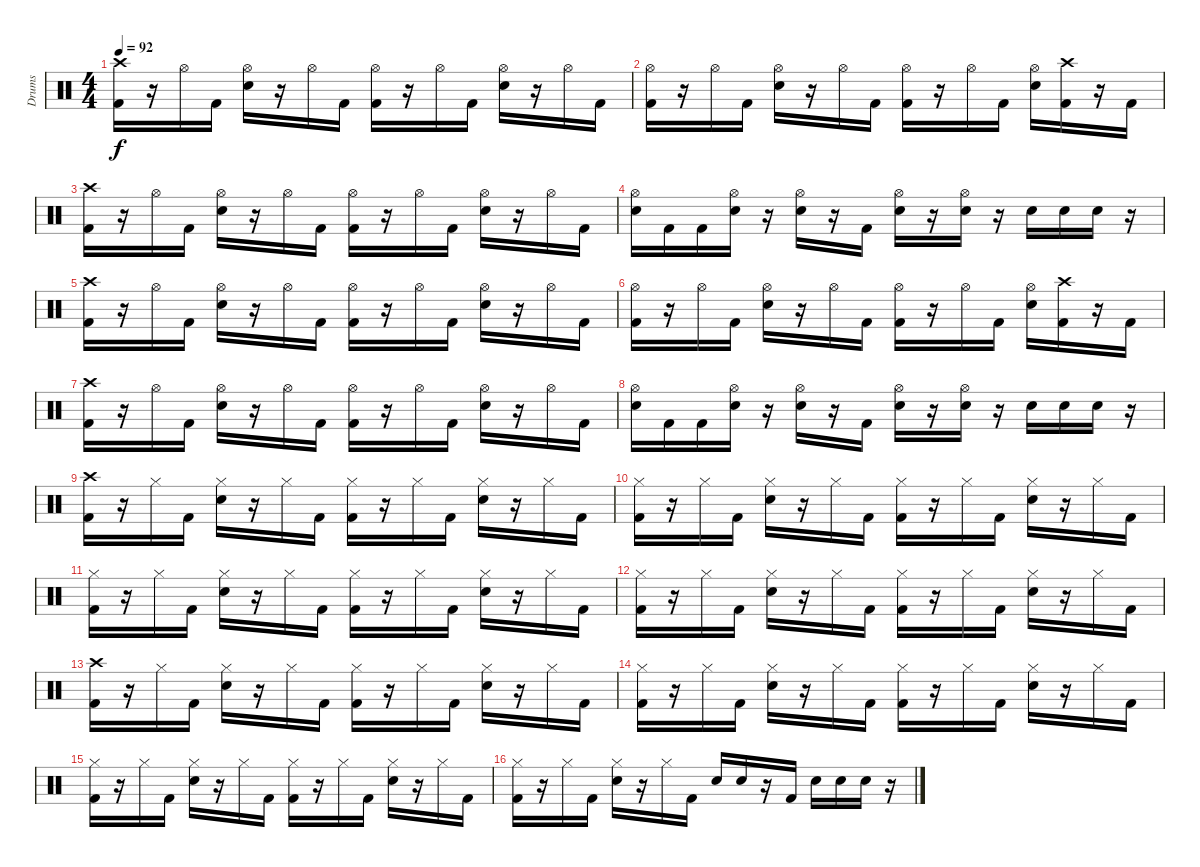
\track ("Drums" "Drums") {instrument percussion}
\staff {score}
\articulation defaults
\ts (4 4)
\tempo 92
\clef neutral
\ks c
("Crash high (hit)" "Kick (hit) 2").16{dy f} r.16 "Hi-Hat (open)".16 "Kick (hit) 2".16 ("Hi-Hat (open)" "Electric Snare (hit)").16 r.16 "Hi-Hat (open)".16 "Kick (hit) 2".16 ("Hi-Hat (open)" "Kick (hit) 2").16 r.16 "Hi-Hat (open)".16 "Kick (hit) 2".16 ("Hi-Hat (open)" "Electric Snare (hit)").16 r.16 "Hi-Hat (open)".16 "Kick (hit) 2".16 |
("Hi-Hat (open)" "Kick (hit) 2").16 r.16 "Hi-Hat (open)".16 "Kick (hit) 2".16 ("Hi-Hat (open)" "Electric Snare (hit)").16 r.16 "Hi-Hat (open)".16 "Kick (hit) 2".16 ("Hi-Hat (open)" "Kick (hit) 2").16 r.16 "Hi-Hat (open)".16 "Kick (hit) 2".16 ("Hi-Hat (open)" "Electric Snare (hit)").16 ("Crash high (hit)" "Kick (hit) 2").16 r.16 "Kick (hit) 2".16 |
("Crash high (hit)" "Kick (hit) 2").16 r.16 "Hi-Hat (open)".16 "Kick (hit) 2".16 ("Hi-Hat (open)" "Electric Snare (hit)").16 r.16 "Hi-Hat (open)".16 "Kick (hit) 2".16 ("Hi-Hat (open)" "Kick (hit) 2").16 r.16 "Hi-Hat (open)".16 "Kick (hit) 2".16 ("Hi-Hat (open)" "Electric Snare (hit)").16 r.16 "Hi-Hat (open)".16 "Kick (hit) 2".16 |
("Hi-Hat (open)" "Electric Snare (hit)").16 "Kick (hit) 2".16 "Kick (hit) 2".16 ("Hi-Hat (open)" "Electric Snare (hit)").16 r.16 ("Hi-Hat (open)" "Electric Snare (hit)").16 r.16 "Kick (hit) 2".16 ("Hi-Hat (open)" "Electric Snare (hit)").16 r.16 ("Hi-Hat (open)" "Electric Snare (hit)").16 r.16 "Electric Snare (hit)".16 "Electric Snare (hit)".16 "Electric Snare (hit)".16 r.16 |
("Crash high (hit)" "Kick (hit) 2").16 r.16 "Hi-Hat (open)".16 "Kick (hit) 2".16 ("Hi-Hat (open)" "Electric Snare (hit)").16 r.16 "Hi-Hat (open)".16 "Kick (hit) 2".16 ("Hi-Hat (open)" "Kick (hit) 2").16 r.16 "Hi-Hat (open)".16 "Kick (hit) 2".16 ("Hi-Hat (open)" "Electric Snare (hit)").16 r.16 "Hi-Hat (open)".16 "Kick (hit) 2".16 |
("Hi-Hat (open)" "Kick (hit) 2").16 r.16 "Hi-Hat (open)".16 "Kick (hit) 2".16 ("Hi-Hat (open)" "Electric Snare (hit)").16 r.16 "Hi-Hat (open)".16 "Kick (hit) 2".16 ("Hi-Hat (open)" "Kick (hit) 2").16 r.16 "Hi-Hat (open)".16 "Kick (hit) 2".16 ("Hi-Hat (open)" "Electric Snare (hit)").16 ("Crash high (hit)" "Kick (hit) 2").16 r.16 "Kick (hit) 2".16 |
("Crash high (hit)" "Kick (hit) 2").16 r.16 "Hi-Hat (open)".16 "Kick (hit) 2".16 ("Hi-Hat (open)" "Electric Snare (hit)").16 r.16 "Hi-Hat (open)".16 "Kick (hit) 2".16 ("Hi-Hat (open)" "Kick (hit) 2").16 r.16 "Hi-Hat (open)".16 "Kick (hit) 2".16 ("Hi-Hat (open)" "Electric Snare (hit)").16 r.16 "Hi-Hat (open)".16 "Kick (hit) 2".16 |
("Hi-Hat (open)" "Electric Snare (hit)").16 "Kick (hit) 2".16 "Kick (hit) 2".16 ("Hi-Hat (open)" "Electric Snare (hit)").16 r.16 ("Hi-Hat (open)" "Electric Snare (hit)").16 r.16 "Kick (hit) 2".16 ("Hi-Hat (open)" "Electric Snare (hit)").16 r.16 ("Hi-Hat (open)" "Electric Snare (hit)").16 r.16 "Electric Snare (hit)".16 "Electric Snare (hit)".16 "Electric Snare (hit)".16 r.16 |
("Crash high (hit)" "Kick (hit) 2").16 r.16 "Hi-Hat (closed)".16 "Kick (hit) 2".16 ("Hi-Hat (closed)" "Electric Snare (hit)").16 r.16 "Hi-Hat (closed)".16 "Kick (hit) 2".16 ("Hi-Hat (closed)" "Kick (hit) 2").16 r.16 "Hi-Hat (closed)".16 "Kick (hit) 2".16 ("Hi-Hat (closed)" "Electric Snare (hit)").16 r.16 "Hi-Hat (closed)".16 "Kick (hit) 2".16 |
("Hi-Hat (closed)" "Kick (hit) 2").16 r.16 "Hi-Hat (closed)".16 "Kick (hit) 2".16 ("Hi-Hat (closed)" "Electric Snare (hit)").16 r.16 "Hi-Hat (closed)".16 "Kick (hit) 2".16 ("Hi-Hat (closed)" "Kick (hit) 2").16 r.16 "Hi-Hat (closed)".16 "Kick (hit) 2".16 ("Hi-Hat (closed)" "Electric Snare (hit)").16 r.16 "Hi-Hat (closed)".16 "Kick (hit) 2".16 |
("Hi-Hat (closed)" "Kick (hit) 2").16 r.16 "Hi-Hat (closed)".16 "Kick (hit) 2".16 ("Hi-Hat (closed)" "Electric Snare (hit)").16 r.16 "Hi-Hat (closed)".16 "Kick (hit) 2".16 ("Hi-Hat (closed)" "Kick (hit) 2").16 r.16 "Hi-Hat (closed)".16 "Kick (hit) 2".16 ("Hi-Hat (closed)" "Electric Snare (hit)").16 r.16 "Hi-Hat (closed)".16 "Kick (hit) 2".16 |
("Hi-Hat (closed)" "Kick (hit) 2").16 r.16 "Hi-Hat (closed)".16 "Kick (hit) 2".16 ("Hi-Hat (closed)" "Electric Snare (hit)").16 r.16 "Hi-Hat (closed)".16 "Kick (hit) 2".16 ("Hi-Hat (closed)" "Kick (hit) 2").16 r.16 "Hi-Hat (closed)".16 "Kick (hit) 2".16 ("Hi-Hat (closed)" "Electric Snare (hit)").16 r.16 "Hi-Hat (closed)".16 "Kick (hit) 2".16 |
("Crash high (hit)" "Kick (hit) 2").16 r.16 "Hi-Hat (closed)".16 "Kick (hit) 2".16 ("Hi-Hat (closed)" "Electric Snare (hit)").16 r.16 "Hi-Hat (closed)".16 "Kick (hit) 2".16 ("Hi-Hat (closed)" "Kick (hit) 2").16 r.16 "Hi-Hat (closed)".16 "Kick (hit) 2".16 ("Hi-Hat (closed)" "Electric Snare (hit)").16 r.16 "Hi-Hat (closed)".16 "Kick (hit) 2".16 |
("Hi-Hat (closed)" "Kick (hit) 2").16 r.16 "Hi-Hat (closed)".16 "Kick (hit) 2".16 ("Hi-Hat (closed)" "Electric Snare (hit)").16 r.16 "Hi-Hat (closed)".16 "Kick (hit) 2".16 ("Hi-Hat (closed)" "Kick (hit) 2").16 r.16 "Hi-Hat (closed)".16 "Kick (hit) 2".16 ("Hi-Hat (closed)" "Electric Snare (hit)").16 r.16 "Hi-Hat (closed)".16 "Kick (hit) 2".16 |
("Hi-Hat (closed)" "Kick (hit) 2").16 r.16 "Hi-Hat (closed)".16 "Kick (hit) 2".16 ("Hi-Hat (closed)" "Electric Snare (hit)").16 r.16 "Hi-Hat (closed)".16 "Kick (hit) 2".16 ("Hi-Hat (closed)" "Kick (hit) 2").16 r.16 "Hi-Hat (closed)".16 "Kick (hit) 2".16 ("Hi-Hat (closed)" "Electric Snare (hit)").16 r.16 "Hi-Hat (closed)".16 "Kick (hit) 2".16 |
("Hi-Hat (closed)" "Kick (hit) 2").16 r.16 "Hi-Hat (closed)".16 "Kick (hit) 2".16 ("Hi-Hat (closed)" "Electric Snare (hit)").16 r.16 "Hi-Hat (closed)".16 "Kick (hit) 2".16 "Electric Snare (hit)".16 "Electric Snare (hit)".16 r.16 "Kick (hit) 2".16 "Electric Snare (hit)".16 "Electric Snare (hit)".16 "Electric Snare (hit)".16 r.16
